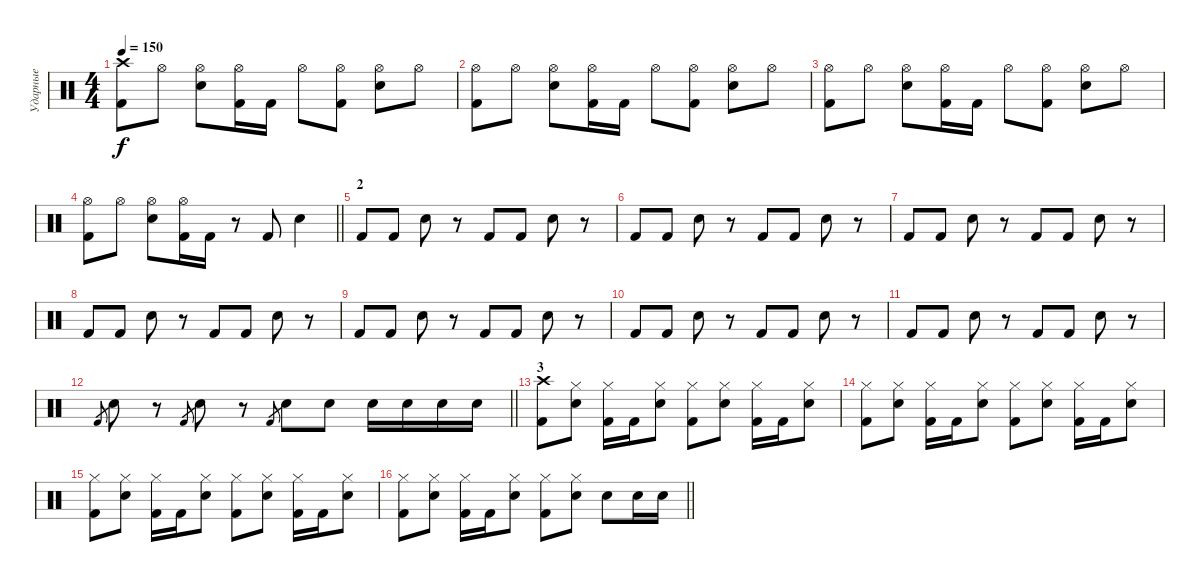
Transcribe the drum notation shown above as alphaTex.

\track ("Ударные" "Ударные") {instrument percussion}
\staff {score}
\articulation defaults
\ts (4 4)
\tempo 150
\clef neutral
\ks c
("Crash high (hit)" "Kick (hit) 2").8{dy f} "Hi-Hat (open)".8 ("Hi-Hat (open)" "Electric Snare (hit)").8 ("Hi-Hat (open)" "Kick (hit) 2").16 "Kick (hit) 2".16 "Hi-Hat (open)".8 ("Hi-Hat (open)" "Kick (hit) 2").8 ("Hi-Hat (open)" "Electric Snare (hit)").8 "Hi-Hat (open)".8 |
("Hi-Hat (open)" "Kick (hit) 2").8 "Hi-Hat (open)".8 ("Hi-Hat (open)" "Electric Snare (hit)").8 ("Hi-Hat (open)" "Kick (hit) 2").16 "Kick (hit) 2".16 "Hi-Hat (open)".8 ("Hi-Hat (open)" "Kick (hit) 2").8 ("Hi-Hat (open)" "Electric Snare (hit)").8 "Hi-Hat (open)".8 |
("Hi-Hat (open)" "Kick (hit) 2").8 "Hi-Hat (open)".8 ("Hi-Hat (open)" "Electric Snare (hit)").8 ("Hi-Hat (open)" "Kick (hit) 2").16 "Kick (hit) 2".16 "Hi-Hat (open)".8 ("Hi-Hat (open)" "Kick (hit) 2").8 ("Hi-Hat (open)" "Electric Snare (hit)").8 "Hi-Hat (open)".8 |
\barLineRight lightlight
("Hi-Hat (open)" "Kick (hit) 2").8 "Hi-Hat (open)".8 ("Hi-Hat (open)" "Electric Snare (hit)").8 ("Hi-Hat (open)" "Kick (hit) 2").16 "Kick (hit) 2".16 r.8 "Kick (hit) 2".8 "Electric Snare (hit)".4 |
\section ("" "2")
"Kick (hit) 2".8 "Kick (hit) 2".8 "Electric Snare (hit)".8 r.8 "Kick (hit) 2".8 "Kick (hit) 2".8 "Electric Snare (hit)".8 r.8 |
"Kick (hit) 2".8 "Kick (hit) 2".8 "Electric Snare (hit)".8 r.8 "Kick (hit) 2".8 "Kick (hit) 2".8 "Electric Snare (hit)".8 r.8 |
"Kick (hit) 2".8 "Kick (hit) 2".8 "Electric Snare (hit)".8 r.8 "Kick (hit) 2".8 "Kick (hit) 2".8 "Electric Snare (hit)".8 r.8 |
"Kick (hit) 2".8 "Kick (hit) 2".8 "Electric Snare (hit)".8 r.8 "Kick (hit) 2".8 "Kick (hit) 2".8 "Electric Snare (hit)".8 r.8 |
"Kick (hit) 2".8 "Kick (hit) 2".8 "Electric Snare (hit)".8 r.8 "Kick (hit) 2".8 "Kick (hit) 2".8 "Electric Snare (hit)".8 r.8 |
"Kick (hit) 2".8 "Kick (hit) 2".8 "Electric Snare (hit)".8 r.8 "Kick (hit) 2".8 "Kick (hit) 2".8 "Electric Snare (hit)".8 r.8 |
"Kick (hit) 2".8 "Kick (hit) 2".8 "Electric Snare (hit)".8 r.8 "Kick (hit) 2".8 "Kick (hit) 2".8 "Electric Snare (hit)".8 r.8 |
\barLineRight lightlight "Kick (hit) 2".8{gr} "Electric Snare (hit)".8
r.8 "Kick (hit) 2".8{gr} "Electric Snare (hit)".8 r.8 "Kick (hit) 2".8{gr} "Electric Snare (hit)".8 "Electric Snare (hit)".8 "Electric Snare (hit)".16 "Electric Snare (hit)".16 "Electric Snare (hit)".16 "Electric Snare (hit)".16 |
\section ("" "3")
("Crash high (hit)" "Kick (hit) 2").8 ("Hi-Hat (closed)" "Electric Snare (hit)").8 ("Hi-Hat (closed)" "Kick (hit) 2").16 "Kick (hit) 2".16 ("Hi-Hat (closed)" "Electric Snare (hit)").8 ("Hi-Hat (closed)" "Kick (hit) 2").8 ("Hi-Hat (closed)" "Electric Snare (hit)").8 ("Hi-Hat (closed)" "Kick (hit) 2").16 "Kick (hit) 2".16 ("Hi-Hat (closed)" "Electric Snare (hit)").8 |
("Hi-Hat (closed)" "Kick (hit) 2").8 ("Hi-Hat (closed)" "Electric Snare (hit)").8 ("Hi-Hat (closed)" "Kick (hit) 2").16 "Kick (hit) 2".16 ("Hi-Hat (closed)" "Electric Snare (hit)").8 ("Hi-Hat (closed)" "Kick (hit) 2").8 ("Hi-Hat (closed)" "Electric Snare (hit)").8 ("Hi-Hat (closed)" "Kick (hit) 2").16 "Kick (hit) 2".16 ("Hi-Hat (closed)" "Electric Snare (hit)").8 |
("Hi-Hat (closed)" "Kick (hit) 2").8 ("Hi-Hat (closed)" "Electric Snare (hit)").8 ("Hi-Hat (closed)" "Kick (hit) 2").16 "Kick (hit) 2".16 ("Hi-Hat (closed)" "Electric Snare (hit)").8 ("Hi-Hat (closed)" "Kick (hit) 2").8 ("Hi-Hat (closed)" "Electric Snare (hit)").8 ("Hi-Hat (closed)" "Kick (hit) 2").16 "Kick (hit) 2".16 ("Hi-Hat (closed)" "Electric Snare (hit)").8 |
\barLineRight lightlight
("Hi-Hat (closed)" "Kick (hit) 2").8 ("Hi-Hat (closed)" "Electric Snare (hit)").8 ("Hi-Hat (closed)" "Kick (hit) 2").16 "Kick (hit) 2".16 ("Hi-Hat (closed)" "Electric Snare (hit)").8 ("Hi-Hat (closed)" "Kick (hit) 2").8 ("Hi-Hat (closed)" "Electric Snare (hit)").8 "Electric Snare (hit)".8 "Electric Snare (hit)".16 "Electric Snare (hit)".16
